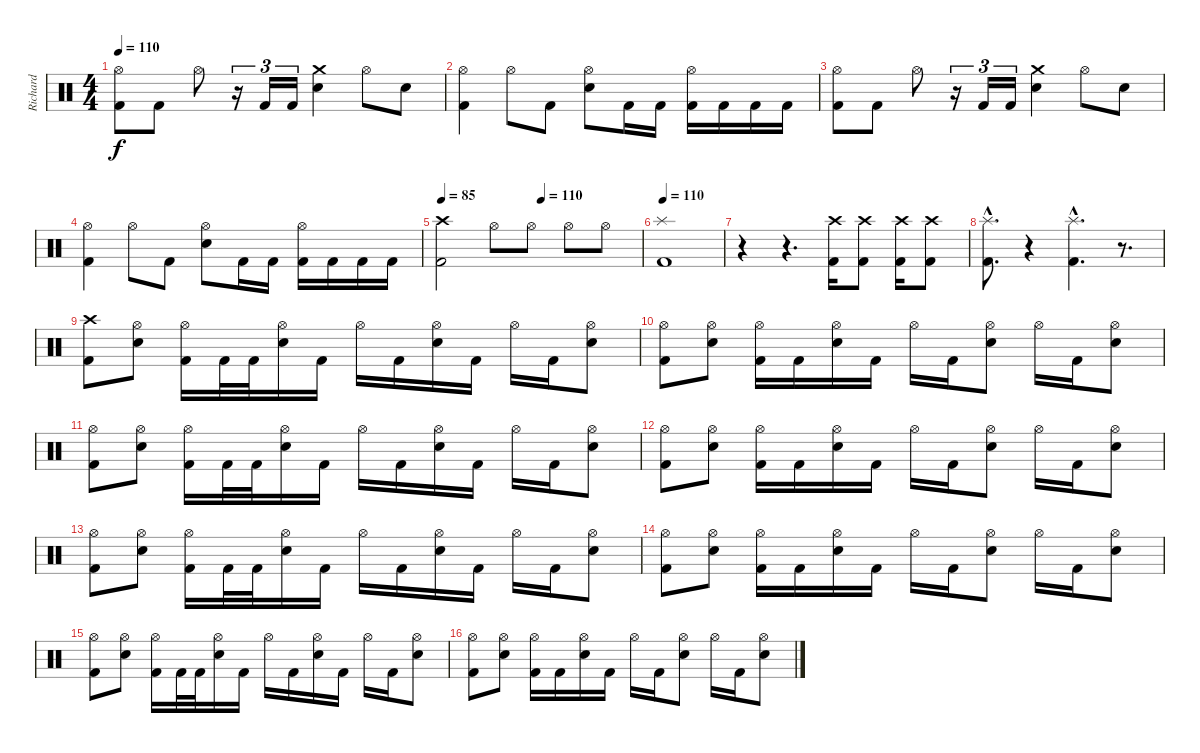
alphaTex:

\track ("Richard" "Richard") {instrument percussion}
\staff {score}
\articulation defaults
\ts (4 4)
\tempo 110
\clef neutral
\ks c
("Hi-Hat (open)" "Kick (hit) 2").8{dy f} "Kick (hit) 2".8 "Hi-Hat (open)".8 r.16{tu (3 2)} "Kick (hit) 2".16{tu (3 2)} "Kick (hit) 2".16{tu (3 2)} ("Crash medium (hit)" "Snare (hit) 2").4 "Hi-Hat (open)".8 "Snare (hit) 2".8 |
("Hi-Hat (open)" "Kick (hit) 2").4 "Hi-Hat (open)".8 "Kick (hit) 2".8 ("Hi-Hat (open)" "Snare (hit) 2").8 "Kick (hit) 2".16 "Kick (hit) 2".16 ("Hi-Hat (open)" "Kick (hit) 2").16 "Kick (hit) 2".16 "Kick (hit) 2".16 "Kick (hit) 2".16 |
("Hi-Hat (open)" "Kick (hit) 2").8 "Kick (hit) 2".8 "Hi-Hat (open)".8 r.16{tu (3 2)} "Kick (hit) 2".16{tu (3 2)} "Kick (hit) 2".16{tu (3 2)} ("Crash medium (hit)" "Snare (hit) 2").4 "Hi-Hat (open)".8 "Snare (hit) 2".8 |
("Hi-Hat (open)" "Kick (hit) 2").4 "Hi-Hat (open)".8 "Kick (hit) 2".8 ("Hi-Hat (open)" "Snare (hit) 2").8 "Kick (hit) 2".16 "Kick (hit) 2".16 ("Hi-Hat (open)" "Kick (hit) 2").16 "Kick (hit) 2".16 "Kick (hit) 2".16 "Kick (hit) 2".16 |
\tempo 85
\tempo (110 0.5)
("Crash high (hit)" "Kick (hit) 2").2 "Hi-Hat (open)".8 "Hi-Hat (open)".8 "Hi-Hat (open)".8 "Hi-Hat (open)".8 |
\tempo 110
("Splash (hit)" "Kick (hit) 2").1 |
r.4 r.4{d} ("Crash high (hit)" "Kick (hit) 2").16 ("Crash high (hit)" "Kick (hit) 2").8 ("Crash high (hit)" "Kick (hit) 2").16 ("Crash high (hit)" "Kick (hit) 2").8 |
("Splash (hit)"{hac} "Kick (hit) 2"{hac}).8{d} r.4 ("Splash (hit)"{hac} "Kick (hit) 2"{hac}).4{d} r.8{d} |
("Crash high (hit)" "Kick (hit) 2").8 ("Hi-Hat (open)" "Snare (hit) 2").8 ("Hi-Hat (open)" "Kick (hit) 2").16 "Kick (hit) 2".32 "Kick (hit) 2".32 ("Hi-Hat (open)" "Snare (hit) 2").16 "Kick (hit) 2".16 "Hi-Hat (open)".16 "Kick (hit) 2".16 ("Hi-Hat (open)" "Snare (hit) 2").16 "Kick (hit) 2".16 "Hi-Hat (open)".16 "Kick (hit) 2".16 ("Hi-Hat (open)" "Snare (hit) 2").8 |
("Hi-Hat (open)" "Kick (hit) 2").8 ("Hi-Hat (open)" "Snare (hit) 2").8 ("Hi-Hat (open)" "Kick (hit) 2").16 "Kick (hit) 2".16 ("Hi-Hat (open)" "Snare (hit) 2").16 "Kick (hit) 2".16 "Hi-Hat (open)".16 "Kick (hit) 2".16 ("Hi-Hat (open)" "Snare (hit) 2").8 "Hi-Hat (open)".16 "Kick (hit) 2".16 ("Hi-Hat (open)" "Snare (hit) 2").8 |
("Hi-Hat (open)" "Kick (hit) 2").8 ("Hi-Hat (open)" "Snare (hit) 2").8 ("Hi-Hat (open)" "Kick (hit) 2").16 "Kick (hit) 2".32 "Kick (hit) 2".32 ("Hi-Hat (open)" "Snare (hit) 2").16 "Kick (hit) 2".16 "Hi-Hat (open)".16 "Kick (hit) 2".16 ("Hi-Hat (open)" "Snare (hit) 2").16 "Kick (hit) 2".16 "Hi-Hat (open)".16 "Kick (hit) 2".16 ("Hi-Hat (open)" "Snare (hit) 2").8 |
("Hi-Hat (open)" "Kick (hit) 2").8 ("Hi-Hat (open)" "Snare (hit) 2").8 ("Hi-Hat (open)" "Kick (hit) 2").16 "Kick (hit) 2".16 ("Hi-Hat (open)" "Snare (hit) 2").16 "Kick (hit) 2".16 "Hi-Hat (open)".16 "Kick (hit) 2".16 ("Hi-Hat (open)" "Snare (hit) 2").8 "Hi-Hat (open)".16 "Kick (hit) 2".16 ("Hi-Hat (open)" "Snare (hit) 2").8 |
("Hi-Hat (open)" "Kick (hit) 2").8 ("Hi-Hat (open)" "Snare (hit) 2").8 ("Hi-Hat (open)" "Kick (hit) 2").16 "Kick (hit) 2".32 "Kick (hit) 2".32 ("Hi-Hat (open)" "Snare (hit) 2").16 "Kick (hit) 2".16 "Hi-Hat (open)".16 "Kick (hit) 2".16 ("Hi-Hat (open)" "Snare (hit) 2").16 "Kick (hit) 2".16 "Hi-Hat (open)".16 "Kick (hit) 2".16 ("Hi-Hat (open)" "Snare (hit) 2").8 |
("Hi-Hat (open)" "Kick (hit) 2").8 ("Hi-Hat (open)" "Snare (hit) 2").8 ("Hi-Hat (open)" "Kick (hit) 2").16 "Kick (hit) 2".16 ("Hi-Hat (open)" "Snare (hit) 2").16 "Kick (hit) 2".16 "Hi-Hat (open)".16 "Kick (hit) 2".16 ("Hi-Hat (open)" "Snare (hit) 2").8 "Hi-Hat (open)".16 "Kick (hit) 2".16 ("Hi-Hat (open)" "Snare (hit) 2").8 |
("Hi-Hat (open)" "Kick (hit) 2").8 ("Hi-Hat (open)" "Snare (hit) 2").8 ("Hi-Hat (open)" "Kick (hit) 2").16 "Kick (hit) 2".32 "Kick (hit) 2".32 ("Hi-Hat (open)" "Snare (hit) 2").16 "Kick (hit) 2".16 "Hi-Hat (open)".16 "Kick (hit) 2".16 ("Hi-Hat (open)" "Snare (hit) 2").16 "Kick (hit) 2".16 "Hi-Hat (open)".16 "Kick (hit) 2".16 ("Hi-Hat (open)" "Snare (hit) 2").8 |
("Hi-Hat (open)" "Kick (hit) 2").8 ("Hi-Hat (open)" "Snare (hit) 2").8 ("Hi-Hat (open)" "Kick (hit) 2").16 "Kick (hit) 2".16 ("Hi-Hat (open)" "Snare (hit) 2").16 "Kick (hit) 2".16 "Hi-Hat (open)".16 "Kick (hit) 2".16 ("Hi-Hat (open)" "Snare (hit) 2").8 "Hi-Hat (open)".16 "Kick (hit) 2".16 ("Hi-Hat (open)" "Snare (hit) 2").8
